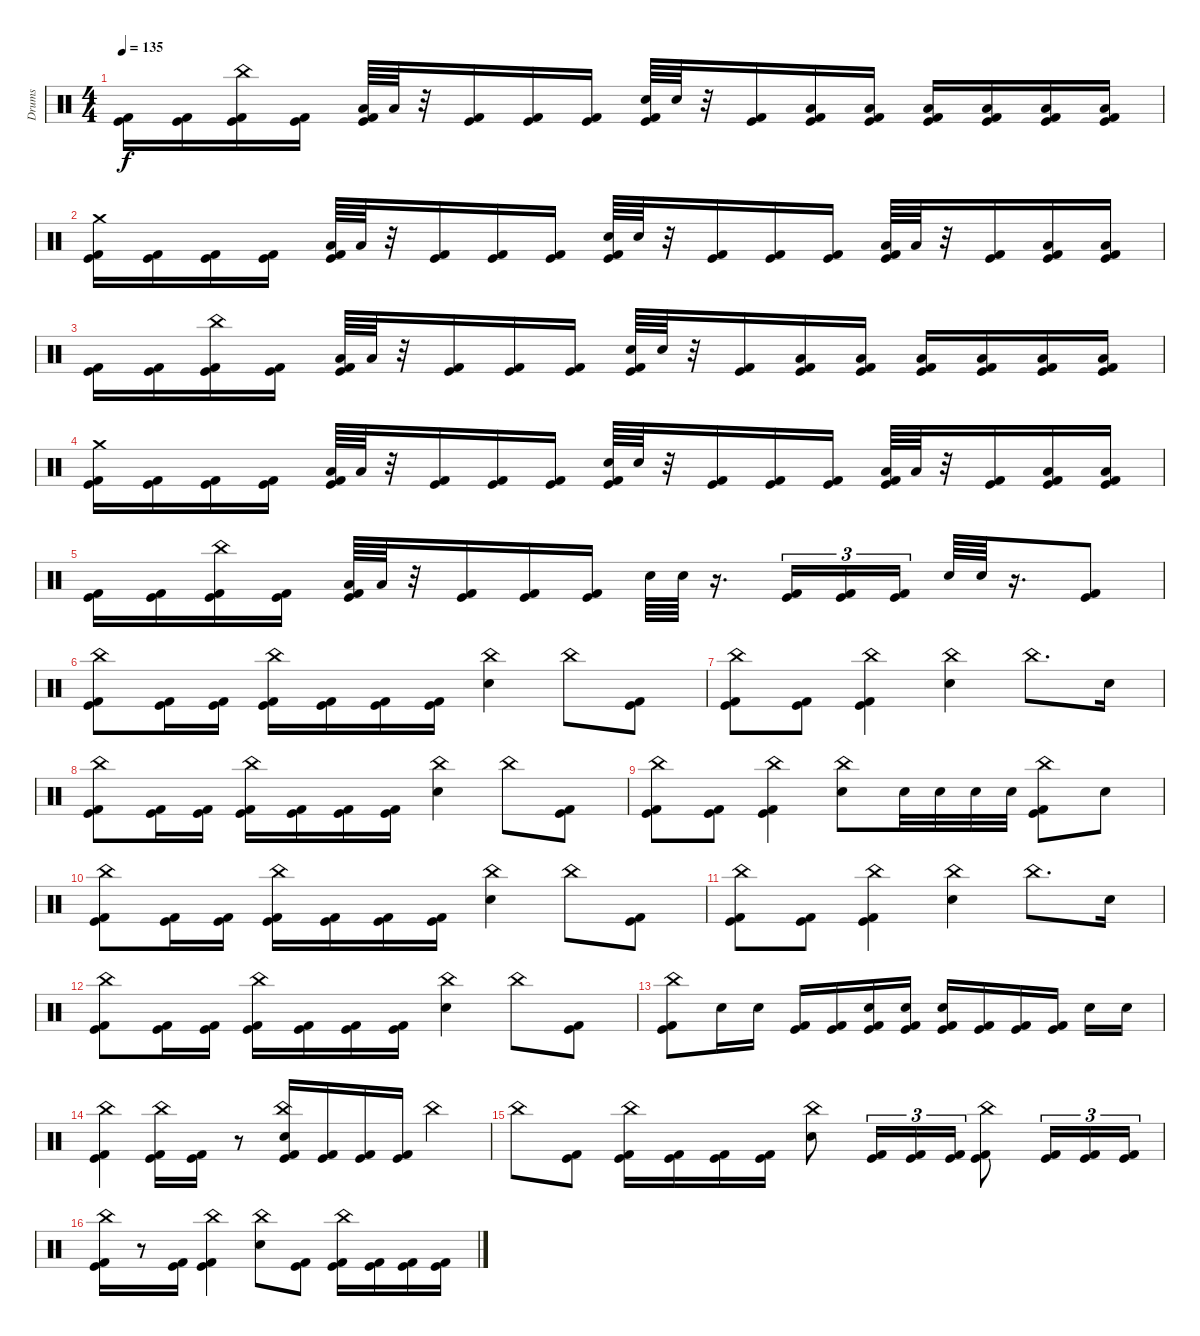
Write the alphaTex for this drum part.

\track ("Drums" "Drums") {instrument percussion}
\staff {score}
\articulation defaults
\ts (4 4)
\tempo 135
\clef neutral
\ks c
("Kick (hit)" "Kick (hit) 2").16{dy f} ("Kick (hit)" "Kick (hit) 2").16 ("China (hit)" "Kick (hit)" "Kick (hit) 2").16 ("Kick (hit)" "Kick (hit) 2").16 ("Low Tom (hit)" "Kick (hit)" "Kick (hit) 2").64 "Low Tom (hit)".64 r.32 ("Kick (hit)" "Kick (hit) 2").16 ("Kick (hit)" "Kick (hit) 2").16 ("Kick (hit)" "Kick (hit) 2").16 ("Electric Snare (hit)" "Kick (hit)" "Kick (hit) 2").64 "Electric Snare (hit)".64 r.32 ("Kick (hit)" "Kick (hit) 2").16 ("Low Tom (hit)" "Kick (hit)" "Kick (hit) 2").16 ("Low Tom (hit)" "Kick (hit)" "Kick (hit) 2").16 ("Low Tom (hit)" "Kick (hit)" "Kick (hit) 2").16 ("Low Tom (hit)" "Kick (hit)" "Kick (hit) 2").16 ("Low Tom (hit)" "Kick (hit)" "Kick (hit) 2").16 ("Low Tom (hit)" "Kick (hit)" "Kick (hit) 2").16 |
("Crash medium (hit)" "Kick (hit)" "Kick (hit) 2").16 ("Kick (hit)" "Kick (hit) 2").16 ("Kick (hit)" "Kick (hit) 2").16 ("Kick (hit)" "Kick (hit) 2").16 ("Low Tom (hit)" "Kick (hit)" "Kick (hit) 2").64 "Low Tom (hit)".64 r.32 ("Kick (hit)" "Kick (hit) 2").16 ("Kick (hit)" "Kick (hit) 2").16 ("Kick (hit)" "Kick (hit) 2").16 ("Electric Snare (hit)" "Kick (hit)" "Kick (hit) 2").64 "Electric Snare (hit)".64 r.32 ("Kick (hit)" "Kick (hit) 2").16 ("Kick (hit)" "Kick (hit) 2").16 ("Kick (hit)" "Kick (hit) 2").16 ("Low Tom (hit)" "Kick (hit)" "Kick (hit) 2").64 "Low Tom (hit)".64 r.32 ("Kick (hit)" "Kick (hit) 2").16 ("Low Tom (hit)" "Kick (hit)" "Kick (hit) 2").16 ("Low Tom (hit)" "Kick (hit)" "Kick (hit) 2").16 |
("Kick (hit)" "Kick (hit) 2").16 ("Kick (hit)" "Kick (hit) 2").16 ("China (hit)" "Kick (hit)" "Kick (hit) 2").16 ("Kick (hit)" "Kick (hit) 2").16 ("Low Tom (hit)" "Kick (hit)" "Kick (hit) 2").64 "Low Tom (hit)".64 r.32 ("Kick (hit)" "Kick (hit) 2").16 ("Kick (hit)" "Kick (hit) 2").16 ("Kick (hit)" "Kick (hit) 2").16 ("Electric Snare (hit)" "Kick (hit)" "Kick (hit) 2").64 "Electric Snare (hit)".64 r.32 ("Kick (hit)" "Kick (hit) 2").16 ("Low Tom (hit)" "Kick (hit)" "Kick (hit) 2").16 ("Low Tom (hit)" "Kick (hit)" "Kick (hit) 2").16 ("Low Tom (hit)" "Kick (hit)" "Kick (hit) 2").16 ("Low Tom (hit)" "Kick (hit)" "Kick (hit) 2").16 ("Low Tom (hit)" "Kick (hit)" "Kick (hit) 2").16 ("Low Tom (hit)" "Kick (hit)" "Kick (hit) 2").16 |
("Crash medium (hit)" "Kick (hit)" "Kick (hit) 2").16 ("Kick (hit)" "Kick (hit) 2").16 ("Kick (hit)" "Kick (hit) 2").16 ("Kick (hit)" "Kick (hit) 2").16 ("Low Tom (hit)" "Kick (hit)" "Kick (hit) 2").64 "Low Tom (hit)".64 r.32 ("Kick (hit)" "Kick (hit) 2").16 ("Kick (hit)" "Kick (hit) 2").16 ("Kick (hit)" "Kick (hit) 2").16 ("Electric Snare (hit)" "Kick (hit)" "Kick (hit) 2").64 "Electric Snare (hit)".64 r.32 ("Kick (hit)" "Kick (hit) 2").16 ("Kick (hit)" "Kick (hit) 2").16 ("Kick (hit)" "Kick (hit) 2").16 ("Low Tom (hit)" "Kick (hit)" "Kick (hit) 2").64 "Low Tom (hit)".64 r.32 ("Kick (hit)" "Kick (hit) 2").16 ("Low Tom (hit)" "Kick (hit)" "Kick (hit) 2").16 ("Low Tom (hit)" "Kick (hit)" "Kick (hit) 2").16 |
("Kick (hit)" "Kick (hit) 2").16 ("Kick (hit)" "Kick (hit) 2").16 ("China (hit)" "Kick (hit)" "Kick (hit) 2").16 ("Kick (hit)" "Kick (hit) 2").16 ("Low Tom (hit)" "Kick (hit)" "Kick (hit) 2").64 "Low Tom (hit)".64 r.32 ("Kick (hit)" "Kick (hit) 2").16 ("Kick (hit)" "Kick (hit) 2").16 ("Kick (hit)" "Kick (hit) 2").16 "Electric Snare (hit)".64 "Electric Snare (hit)".64 r.16{d} ("Kick (hit)" "Kick (hit) 2").16{tu (3 2)} ("Kick (hit)" "Kick (hit) 2").16{tu (3 2)} ("Kick (hit)" "Kick (hit) 2").16{tu (3 2)} "Electric Snare (hit)".64 "Electric Snare (hit)".64 r.16{d} ("Kick (hit)" "Kick (hit) 2").8 |
("China (hit)" "Kick (hit)" "Kick (hit) 2").8 ("Kick (hit)" "Kick (hit) 2").16 ("Kick (hit)" "Kick (hit) 2").16 ("China (hit)" "Kick (hit)" "Kick (hit) 2").16 ("Kick (hit)" "Kick (hit) 2").16 ("Kick (hit)" "Kick (hit) 2").16 ("Kick (hit)" "Kick (hit) 2").16 ("China (hit)" "Electric Snare (hit)").4 "China (hit)".8 ("Kick (hit)" "Kick (hit) 2").8 |
("China (hit)" "Kick (hit)" "Kick (hit) 2").8 ("Kick (hit)" "Kick (hit) 2").8 ("China (hit)" "Kick (hit)" "Kick (hit) 2").4 ("China (hit)" "Electric Snare (hit)").4 "China (hit)".8{d} "Electric Snare (hit)".16 |
("China (hit)" "Kick (hit)" "Kick (hit) 2").8 ("Kick (hit)" "Kick (hit) 2").16 ("Kick (hit)" "Kick (hit) 2").16 ("China (hit)" "Kick (hit)" "Kick (hit) 2").16 ("Kick (hit)" "Kick (hit) 2").16 ("Kick (hit)" "Kick (hit) 2").16 ("Kick (hit)" "Kick (hit) 2").16 ("China (hit)" "Electric Snare (hit)").4 "China (hit)".8 ("Kick (hit)" "Kick (hit) 2").8 |
("China (hit)" "Kick (hit)" "Kick (hit) 2").8 ("Kick (hit)" "Kick (hit) 2").8 ("China (hit)" "Kick (hit)" "Kick (hit) 2").4 ("China (hit)" "Electric Snare (hit)").8 "Electric Snare (hit)".32 "Electric Snare (hit)".32 "Electric Snare (hit)".32 "Electric Snare (hit)".32 ("China (hit)" "Kick (hit)" "Kick (hit) 2").8 "Electric Snare (hit)".8 |
("China (hit)" "Kick (hit)" "Kick (hit) 2").8 ("Kick (hit)" "Kick (hit) 2").16 ("Kick (hit)" "Kick (hit) 2").16 ("China (hit)" "Kick (hit)" "Kick (hit) 2").16 ("Kick (hit)" "Kick (hit) 2").16 ("Kick (hit)" "Kick (hit) 2").16 ("Kick (hit)" "Kick (hit) 2").16 ("China (hit)" "Electric Snare (hit)").4 "China (hit)".8 ("Kick (hit)" "Kick (hit) 2").8 |
("China (hit)" "Kick (hit)" "Kick (hit) 2").8 ("Kick (hit)" "Kick (hit) 2").8 ("China (hit)" "Kick (hit)" "Kick (hit) 2").4 ("China (hit)" "Electric Snare (hit)").4 "China (hit)".8{d} "Electric Snare (hit)".16 |
("China (hit)" "Kick (hit)" "Kick (hit) 2").8 ("Kick (hit)" "Kick (hit) 2").16 ("Kick (hit)" "Kick (hit) 2").16 ("China (hit)" "Kick (hit)" "Kick (hit) 2").16 ("Kick (hit)" "Kick (hit) 2").16 ("Kick (hit)" "Kick (hit) 2").16 ("Kick (hit)" "Kick (hit) 2").16 ("China (hit)" "Electric Snare (hit)").4 "China (hit)".8 ("Kick (hit)" "Kick (hit) 2").8 |
("China (hit)" "Kick (hit)" "Kick (hit) 2").8 "Electric Snare (hit)".16 "Electric Snare (hit)".16 ("Kick (hit)" "Kick (hit) 2").16 ("Kick (hit)" "Kick (hit) 2").16 ("Electric Snare (hit)" "Kick (hit)" "Kick (hit) 2").16 ("Electric Snare (hit)" "Kick (hit)" "Kick (hit) 2").16 ("Electric Snare (hit)" "Kick (hit)" "Kick (hit) 2").16 ("Kick (hit)" "Kick (hit) 2").16 ("Kick (hit)" "Kick (hit) 2").16 ("Kick (hit)" "Kick (hit) 2").16 "Electric Snare (hit)".16 "Electric Snare (hit)".16 |
("China (hit)" "Kick (hit)" "Kick (hit) 2").4 ("China (hit)" "Kick (hit)" "Kick (hit) 2").16 ("Kick (hit)" "Kick (hit) 2").16 r.8 ("China (hit)" "Electric Snare (hit)" "Kick (hit)" "Kick (hit) 2").16 ("Kick (hit)" "Kick (hit) 2").16 ("Kick (hit)" "Kick (hit) 2").16 ("Kick (hit)" "Kick (hit) 2").16 "China (hit)".4 |
"China (hit)".8 ("Kick (hit)" "Kick (hit) 2").8 ("China (hit)" "Kick (hit)" "Kick (hit) 2").16 ("Kick (hit)" "Kick (hit) 2").16 ("Kick (hit)" "Kick (hit) 2").16 ("Kick (hit)" "Kick (hit) 2").16 ("China (hit)" "Electric Snare (hit)").8 ("Kick (hit)" "Kick (hit) 2").16{tu (3 2)} ("Kick (hit)" "Kick (hit) 2").16{tu (3 2)} ("Kick (hit)" "Kick (hit) 2").16{tu (3 2)} ("China (hit)" "Kick (hit)" "Kick (hit) 2").8 ("Kick (hit)" "Kick (hit) 2").16{tu (3 2)} ("Kick (hit)" "Kick (hit) 2").16{tu (3 2)} ("Kick (hit)" "Kick (hit) 2").16{tu (3 2)} |
("China (hit)" "Kick (hit)" "Kick (hit) 2").16 r.8 ("Kick (hit)" "Kick (hit) 2").16 ("China (hit)" "Kick (hit)" "Kick (hit) 2").4 ("China (hit)" "Electric Snare (hit)").8 ("Kick (hit)" "Kick (hit) 2").8 ("China (hit)" "Kick (hit)" "Kick (hit) 2").16 ("Kick (hit)" "Kick (hit) 2").16 ("Kick (hit)" "Kick (hit) 2").16 ("Kick (hit)" "Kick (hit) 2").16
